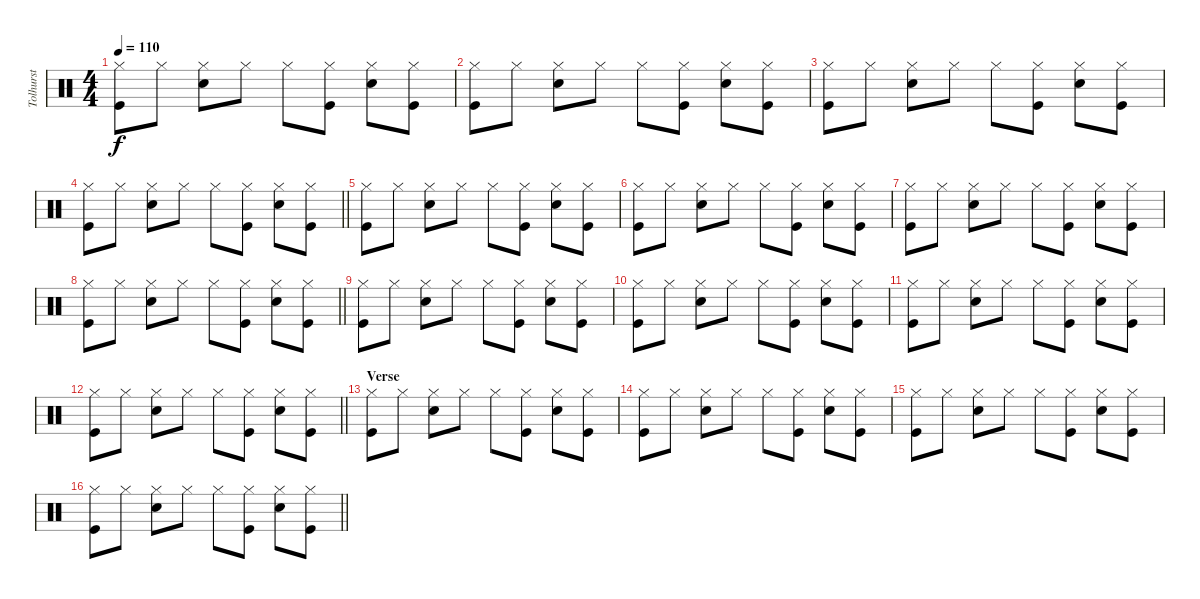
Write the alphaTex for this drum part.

\track ("Tolhurst" "Tolhurst") {instrument percussion}
\staff {score}
\articulation defaults
\ts (4 4)
\tempo 110
\clef neutral
\ks c
("Hi-Hat (closed)" "Kick (hit)").8{dy f} "Hi-Hat (closed)".8 ("Hi-Hat (closed)" "Electric Snare (hit)").8 "Hi-Hat (closed)".8 "Hi-Hat (closed)".8 ("Hi-Hat (closed)" "Kick (hit)").8 ("Hi-Hat (closed)" "Electric Snare (hit)").8 ("Hi-Hat (closed)" "Kick (hit)").8 |
("Hi-Hat (closed)" "Kick (hit)").8 "Hi-Hat (closed)".8 ("Hi-Hat (closed)" "Electric Snare (hit)").8 "Hi-Hat (closed)".8 "Hi-Hat (closed)".8 ("Hi-Hat (closed)" "Kick (hit)").8 ("Hi-Hat (closed)" "Electric Snare (hit)").8 ("Hi-Hat (closed)" "Kick (hit)").8 |
("Hi-Hat (closed)" "Kick (hit)").8 "Hi-Hat (closed)".8 ("Hi-Hat (closed)" "Electric Snare (hit)").8 "Hi-Hat (closed)".8 "Hi-Hat (closed)".8 ("Hi-Hat (closed)" "Kick (hit)").8 ("Hi-Hat (closed)" "Electric Snare (hit)").8 ("Hi-Hat (closed)" "Kick (hit)").8 |
\barLineRight lightlight
("Hi-Hat (closed)" "Kick (hit)").8 "Hi-Hat (closed)".8 ("Hi-Hat (closed)" "Electric Snare (hit)").8 "Hi-Hat (closed)".8 "Hi-Hat (closed)".8 ("Hi-Hat (closed)" "Kick (hit)").8 ("Hi-Hat (closed)" "Electric Snare (hit)").8 ("Hi-Hat (closed)" "Kick (hit)").8 |
("Hi-Hat (closed)" "Kick (hit)").8 "Hi-Hat (closed)".8 ("Hi-Hat (closed)" "Electric Snare (hit)").8 "Hi-Hat (closed)".8 "Hi-Hat (closed)".8 ("Hi-Hat (closed)" "Kick (hit)").8 ("Hi-Hat (closed)" "Electric Snare (hit)").8 ("Hi-Hat (closed)" "Kick (hit)").8 |
("Hi-Hat (closed)" "Kick (hit)").8 "Hi-Hat (closed)".8 ("Hi-Hat (closed)" "Electric Snare (hit)").8 "Hi-Hat (closed)".8 "Hi-Hat (closed)".8 ("Hi-Hat (closed)" "Kick (hit)").8 ("Hi-Hat (closed)" "Electric Snare (hit)").8 ("Hi-Hat (closed)" "Kick (hit)").8 |
("Hi-Hat (closed)" "Kick (hit)").8 "Hi-Hat (closed)".8 ("Hi-Hat (closed)" "Electric Snare (hit)").8 "Hi-Hat (closed)".8 "Hi-Hat (closed)".8 ("Hi-Hat (closed)" "Kick (hit)").8 ("Hi-Hat (closed)" "Electric Snare (hit)").8 ("Hi-Hat (closed)" "Kick (hit)").8 |
\barLineRight lightlight
("Hi-Hat (closed)" "Kick (hit)").8 "Hi-Hat (closed)".8 ("Hi-Hat (closed)" "Electric Snare (hit)").8 "Hi-Hat (closed)".8 "Hi-Hat (closed)".8 ("Hi-Hat (closed)" "Kick (hit)").8 ("Hi-Hat (closed)" "Electric Snare (hit)").8 ("Hi-Hat (closed)" "Kick (hit)").8 |
("Hi-Hat (closed)" "Kick (hit)").8 "Hi-Hat (closed)".8 ("Hi-Hat (closed)" "Electric Snare (hit)").8 "Hi-Hat (closed)".8 "Hi-Hat (closed)".8 ("Hi-Hat (closed)" "Kick (hit)").8 ("Hi-Hat (closed)" "Electric Snare (hit)").8 ("Hi-Hat (closed)" "Kick (hit)").8 |
("Hi-Hat (closed)" "Kick (hit)").8 "Hi-Hat (closed)".8 ("Hi-Hat (closed)" "Electric Snare (hit)").8 "Hi-Hat (closed)".8 "Hi-Hat (closed)".8 ("Hi-Hat (closed)" "Kick (hit)").8 ("Hi-Hat (closed)" "Electric Snare (hit)").8 ("Hi-Hat (closed)" "Kick (hit)").8 |
("Hi-Hat (closed)" "Kick (hit)").8 "Hi-Hat (closed)".8 ("Hi-Hat (closed)" "Electric Snare (hit)").8 "Hi-Hat (closed)".8 "Hi-Hat (closed)".8 ("Hi-Hat (closed)" "Kick (hit)").8 ("Hi-Hat (closed)" "Electric Snare (hit)").8 ("Hi-Hat (closed)" "Kick (hit)").8 |
\barLineRight lightlight
("Hi-Hat (closed)" "Kick (hit)").8 "Hi-Hat (closed)".8 ("Hi-Hat (closed)" "Electric Snare (hit)").8 "Hi-Hat (closed)".8 "Hi-Hat (closed)".8 ("Hi-Hat (closed)" "Kick (hit)").8 ("Hi-Hat (closed)" "Electric Snare (hit)").8 ("Hi-Hat (closed)" "Kick (hit)").8 |
\section ("" "Verse")
("Hi-Hat (closed)" "Kick (hit)").8 "Hi-Hat (closed)".8 ("Hi-Hat (closed)" "Electric Snare (hit)").8 "Hi-Hat (closed)".8 "Hi-Hat (closed)".8 ("Hi-Hat (closed)" "Kick (hit)").8 ("Hi-Hat (closed)" "Electric Snare (hit)").8 ("Hi-Hat (closed)" "Kick (hit)").8 |
("Hi-Hat (closed)" "Kick (hit)").8 "Hi-Hat (closed)".8 ("Hi-Hat (closed)" "Electric Snare (hit)").8 "Hi-Hat (closed)".8 "Hi-Hat (closed)".8 ("Hi-Hat (closed)" "Kick (hit)").8 ("Hi-Hat (closed)" "Electric Snare (hit)").8 ("Hi-Hat (closed)" "Kick (hit)").8 |
("Hi-Hat (closed)" "Kick (hit)").8 "Hi-Hat (closed)".8 ("Hi-Hat (closed)" "Electric Snare (hit)").8 "Hi-Hat (closed)".8 "Hi-Hat (closed)".8 ("Hi-Hat (closed)" "Kick (hit)").8 ("Hi-Hat (closed)" "Electric Snare (hit)").8 ("Hi-Hat (closed)" "Kick (hit)").8 |
\barLineRight lightlight
("Hi-Hat (closed)" "Kick (hit)").8 "Hi-Hat (closed)".8 ("Hi-Hat (closed)" "Electric Snare (hit)").8 "Hi-Hat (closed)".8 "Hi-Hat (closed)".8 ("Hi-Hat (closed)" "Kick (hit)").8 ("Hi-Hat (closed)" "Electric Snare (hit)").8 ("Hi-Hat (closed)" "Kick (hit)").8
